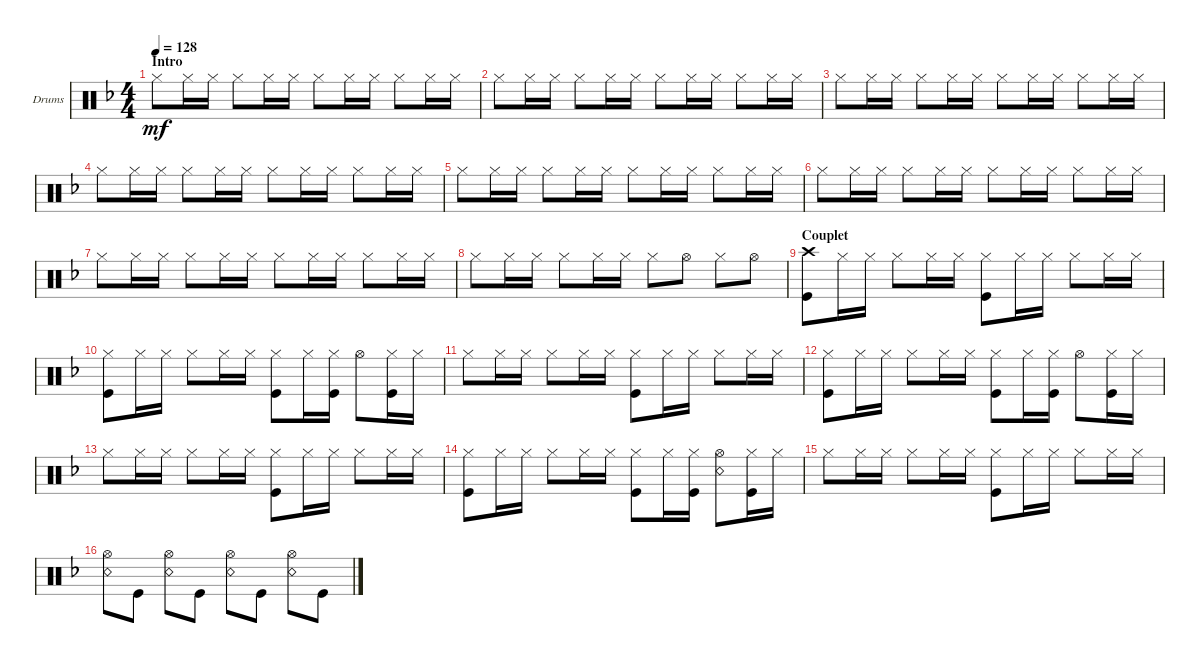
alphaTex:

\defaultSystemsLayout 4
\bracketExtendMode groupsimilarinstruments
\firstSystemTrackNameOrientation horizontal
\otherSystemsTrackNameOrientation horizontal
\track ("Drumkit" "Drums") {instrument percussion}
\staff {score}
\articulation defaults
\ts (4 4)
\section ("" "Intro")
\tempo 128
\clef neutral
\scale
0.474178
\ks f "Hi-Hat (closed)".8{dy mf} "Hi-Hat (closed)".16 "Hi-Hat (closed)".16 "Hi-Hat (closed)".8 "Hi-Hat (closed)".16 "Hi-Hat (closed)".16 "Hi-Hat (closed)".8 "Hi-Hat (closed)".16 "Hi-Hat (closed)".16 "Hi-Hat (closed)".8 "Hi-Hat (closed)".16 "Hi-Hat (closed)".16
|
\scale
0.262911 "Hi-Hat (closed)".8 "Hi-Hat (closed)".16 "Hi-Hat (closed)".16 "Hi-Hat (closed)".8 "Hi-Hat (closed)".16 "Hi-Hat (closed)".16 "Hi-Hat (closed)".8 "Hi-Hat (closed)".16 "Hi-Hat (closed)".16 "Hi-Hat (closed)".8 "Hi-Hat (closed)".16 "Hi-Hat (closed)".16 |
\scale
0.262911 "Hi-Hat (closed)".8 "Hi-Hat (closed)".16 "Hi-Hat (closed)".16 "Hi-Hat (closed)".8 "Hi-Hat (closed)".16 "Hi-Hat (closed)".16 "Hi-Hat (closed)".8 "Hi-Hat (closed)".16 "Hi-Hat (closed)".16 "Hi-Hat (closed)".8 "Hi-Hat (closed)".16 "Hi-Hat (closed)".16 |
\scale
0.333333 "Hi-Hat (closed)".8 "Hi-Hat (closed)".16 "Hi-Hat (closed)".16 "Hi-Hat (closed)".8 "Hi-Hat (closed)".16 "Hi-Hat (closed)".16 "Hi-Hat (closed)".8 "Hi-Hat (closed)".16 "Hi-Hat (closed)".16 "Hi-Hat (closed)".8 "Hi-Hat (closed)".16 "Hi-Hat (closed)".16 |
\scale
0.333333 "Hi-Hat (closed)".8 "Hi-Hat (closed)".16 "Hi-Hat (closed)".16 "Hi-Hat (closed)".8 "Hi-Hat (closed)".16 "Hi-Hat (closed)".16 "Hi-Hat (closed)".8 "Hi-Hat (closed)".16 "Hi-Hat (closed)".16 "Hi-Hat (closed)".8 "Hi-Hat (closed)".16 "Hi-Hat (closed)".16 |
\scale
0.333333 "Hi-Hat (closed)".8 "Hi-Hat (closed)".16 "Hi-Hat (closed)".16 "Hi-Hat (closed)".8 "Hi-Hat (closed)".16 "Hi-Hat (closed)".16 "Hi-Hat (closed)".8 "Hi-Hat (closed)".16 "Hi-Hat (closed)".16 "Hi-Hat (closed)".8 "Hi-Hat (closed)".16 "Hi-Hat (closed)".16 |
\scale
0.333333 "Hi-Hat (closed)".8 "Hi-Hat (closed)".16 "Hi-Hat (closed)".16 "Hi-Hat (closed)".8 "Hi-Hat (closed)".16 "Hi-Hat (closed)".16 "Hi-Hat (closed)".8 "Hi-Hat (closed)".16 "Hi-Hat (closed)".16 "Hi-Hat (closed)".8 "Hi-Hat (closed)".16 "Hi-Hat (closed)".16 |
\scale
0.333333 "Hi-Hat (closed)".8 "Hi-Hat (closed)".16 "Hi-Hat (closed)".16 "Hi-Hat (closed)".8 "Hi-Hat (closed)".16 "Hi-Hat (closed)".16 "Hi-Hat (closed)".8 "Hi-Hat (open)".8 "Hi-Hat (closed)".8 "Hi-Hat (open)".8 |
\section ("" "Couplet")
\scale
0.333333 ("Kick (hit)" "Crash high (hit)").8 "Hi-Hat (closed)".16 "Hi-Hat (closed)".16 "Hi-Hat (closed)".8 "Hi-Hat (closed)".16 "Hi-Hat (closed)".16 ("Hi-Hat (closed)" "Kick (hit)").8 "Hi-Hat (closed)".16 "Hi-Hat (closed)".16 "Hi-Hat (closed)".8 "Hi-Hat (closed)".16 "Hi-Hat (closed)".16 |
\scale
0.333333 ("Hi-Hat (closed)" "Kick (hit)").8 "Hi-Hat (closed)".16 "Hi-Hat (closed)".16 "Hi-Hat (closed)".8 "Hi-Hat (closed)".16 "Hi-Hat (closed)".16 ("Hi-Hat (closed)" "Kick (hit)").8 "Hi-Hat (closed)".16 ("Hi-Hat (closed)" "Kick (hit)").16 "Hi-Hat (open)".8 ("Hi-Hat (closed)" "Kick (hit)").16 "Hi-Hat (closed)".16 |
\scale
0.333333 "Hi-Hat (closed)".8 "Hi-Hat (closed)".16 "Hi-Hat (closed)".16 "Hi-Hat (closed)".8 "Hi-Hat (closed)".16 "Hi-Hat (closed)".16 ("Hi-Hat (closed)" "Kick (hit)").8 "Hi-Hat (closed)".16 "Hi-Hat (closed)".16 "Hi-Hat (closed)".8 "Hi-Hat (closed)".16 "Hi-Hat (closed)".16 |
\scale
0.333333 ("Hi-Hat (closed)" "Kick (hit)").8 "Hi-Hat (closed)".16 "Hi-Hat (closed)".16 "Hi-Hat (closed)".8 "Hi-Hat (closed)".16 "Hi-Hat (closed)".16 ("Hi-Hat (closed)" "Kick (hit)").8 "Hi-Hat (closed)".16 ("Hi-Hat (closed)" "Kick (hit)").16 "Hi-Hat (open)".8 ("Hi-Hat (closed)" "Kick (hit)").16 "Hi-Hat (closed)".16 |
\scale
0.333333 "Hi-Hat (closed)".8 "Hi-Hat (closed)".16 "Hi-Hat (closed)".16 "Hi-Hat (closed)".8 "Hi-Hat (closed)".16 "Hi-Hat (closed)".16 ("Hi-Hat (closed)" "Kick (hit)").8 "Hi-Hat (closed)".16 "Hi-Hat (closed)".16 "Hi-Hat (closed)".8 "Hi-Hat (closed)".16 "Hi-Hat (closed)".16 |
\scale
0.333333 ("Hi-Hat (closed)" "Kick (hit)").8 "Hi-Hat (closed)".16 "Hi-Hat (closed)".16 "Hi-Hat (closed)".8 "Hi-Hat (closed)".16 "Hi-Hat (closed)".16 ("Hi-Hat (closed)" "Kick (hit)").8 "Hi-Hat (closed)".16 ("Hi-Hat (closed)" "Kick (hit)").16 ("Hi-Hat (open)" "Snare (rim shot)").8 ("Hi-Hat (closed)" "Kick (hit)").16 "Hi-Hat (closed)".16 |
\scale
0.333333 "Hi-Hat (closed)".8 "Hi-Hat (closed)".16 "Hi-Hat (closed)".16 "Hi-Hat (closed)".8 "Hi-Hat (closed)".16 "Hi-Hat (closed)".16 ("Hi-Hat (closed)" "Kick (hit)").8 "Hi-Hat (closed)".16 "Hi-Hat (closed)".16 "Hi-Hat (closed)".8 "Hi-Hat (closed)".16 "Hi-Hat (closed)".16 |
\scale
0.333333 ("Hi-Hat (open)" "Snare (rim shot)").8 "Kick (hit)".8 ("Hi-Hat (open)" "Snare (rim shot)").8 "Kick (hit)".8 ("Hi-Hat (open)" "Snare (rim shot)").8 "Kick (hit)".8 ("Hi-Hat (open)" "Snare (rim shot)").8 "Kick (hit)".8
